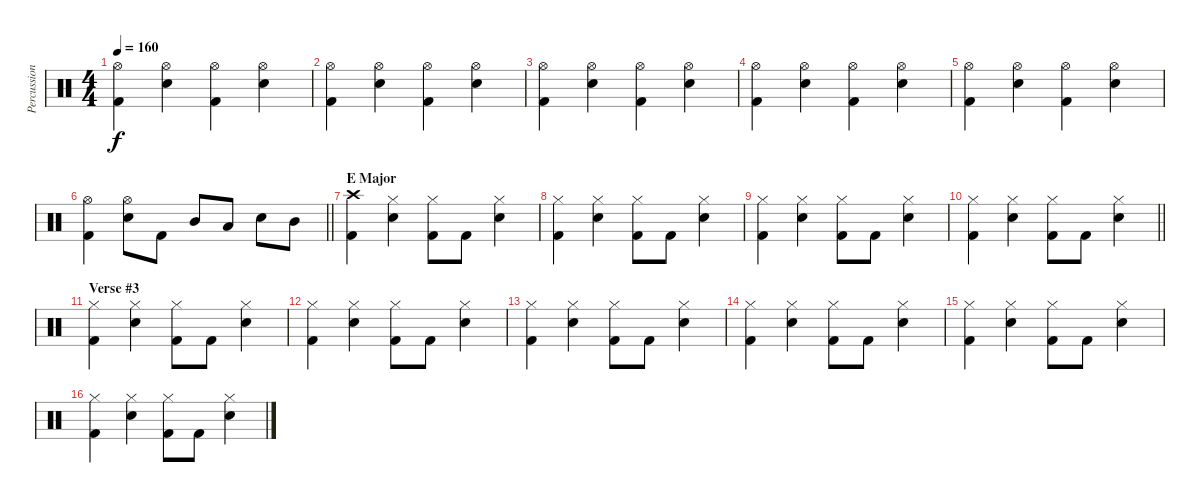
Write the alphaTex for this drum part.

\track ("Percussion" "Percussion") {instrument percussion}
\staff {score}
\articulation defaults
\ts (4 4)
\tempo 160
\clef neutral
\ks c
("Hi-Hat (open)" "Kick (hit) 2").4{dy f} ("Hi-Hat (open)" "Electric Snare (hit)").4 ("Hi-Hat (open)" "Kick (hit) 2").4 ("Hi-Hat (open)" "Electric Snare (hit)").4 |
("Hi-Hat (open)" "Kick (hit) 2").4 ("Hi-Hat (open)" "Electric Snare (hit)").4 ("Hi-Hat (open)" "Kick (hit) 2").4 ("Hi-Hat (open)" "Electric Snare (hit)").4 |
("Hi-Hat (open)" "Kick (hit) 2").4 ("Hi-Hat (open)" "Electric Snare (hit)").4 ("Hi-Hat (open)" "Kick (hit) 2").4 ("Hi-Hat (open)" "Electric Snare (hit)").4 |
("Hi-Hat (open)" "Kick (hit) 2").4 ("Hi-Hat (open)" "Electric Snare (hit)").4 ("Hi-Hat (open)" "Kick (hit) 2").4 ("Hi-Hat (open)" "Electric Snare (hit)").4 |
("Hi-Hat (open)" "Kick (hit) 2").4 ("Hi-Hat (open)" "Electric Snare (hit)").4 ("Hi-Hat (open)" "Kick (hit) 2").4 ("Hi-Hat (open)" "Electric Snare (hit)").4 |
\barLineRight lightlight
("Hi-Hat (open)" "Kick (hit) 2").4 ("Hi-Hat (open)" "Electric Snare (hit)").8 "Kick (hit) 2".8 "Mid Tom (hit)".8 "Low Tom (hit)".8 "Electric Snare (hit)".8 "Mid Tom (hit)".8 |
\section ("" "E Major")
("Crash high (hit)" "Kick (hit) 2").4 ("Hi-Hat (closed)" "Electric Snare (hit)").4 ("Hi-Hat (closed)" "Kick (hit) 2").8 "Kick (hit) 2".8 ("Hi-Hat (closed)" "Electric Snare (hit)").4 |
("Hi-Hat (closed)" "Kick (hit) 2").4 ("Hi-Hat (closed)" "Electric Snare (hit)").4 ("Hi-Hat (closed)" "Kick (hit) 2").8 "Kick (hit) 2".8 ("Hi-Hat (closed)" "Electric Snare (hit)").4 |
("Hi-Hat (closed)" "Kick (hit) 2").4 ("Hi-Hat (closed)" "Electric Snare (hit)").4 ("Hi-Hat (closed)" "Kick (hit) 2").8 "Kick (hit) 2".8 ("Hi-Hat (closed)" "Electric Snare (hit)").4 |
\barLineRight lightlight
("Hi-Hat (closed)" "Kick (hit) 2").4 ("Hi-Hat (closed)" "Electric Snare (hit)").4 ("Hi-Hat (closed)" "Kick (hit) 2").8 "Kick (hit) 2".8 ("Hi-Hat (closed)" "Electric Snare (hit)").4 |
\section ("" "Verse #3")
("Hi-Hat (closed)" "Kick (hit) 2").4 ("Hi-Hat (closed)" "Electric Snare (hit)").4 ("Hi-Hat (closed)" "Kick (hit) 2").8 "Kick (hit) 2".8 ("Hi-Hat (closed)" "Electric Snare (hit)").4 |
("Hi-Hat (closed)" "Kick (hit) 2").4 ("Hi-Hat (closed)" "Electric Snare (hit)").4 ("Hi-Hat (closed)" "Kick (hit) 2").8 "Kick (hit) 2".8 ("Hi-Hat (closed)" "Electric Snare (hit)").4 |
("Hi-Hat (closed)" "Kick (hit) 2").4 ("Hi-Hat (closed)" "Electric Snare (hit)").4 ("Hi-Hat (closed)" "Kick (hit) 2").8 "Kick (hit) 2".8 ("Hi-Hat (closed)" "Electric Snare (hit)").4 |
("Hi-Hat (closed)" "Kick (hit) 2").4 ("Hi-Hat (closed)" "Electric Snare (hit)").4 ("Hi-Hat (closed)" "Kick (hit) 2").8 "Kick (hit) 2".8 ("Hi-Hat (closed)" "Electric Snare (hit)").4 |
("Hi-Hat (closed)" "Kick (hit) 2").4 ("Hi-Hat (closed)" "Electric Snare (hit)").4 ("Hi-Hat (closed)" "Kick (hit) 2").8 "Kick (hit) 2".8 ("Hi-Hat (closed)" "Electric Snare (hit)").4 |
("Hi-Hat (closed)" "Kick (hit) 2").4 ("Hi-Hat (closed)" "Electric Snare (hit)").4 ("Hi-Hat (closed)" "Kick (hit) 2").8 "Kick (hit) 2".8 ("Hi-Hat (closed)" "Electric Snare (hit)").4
